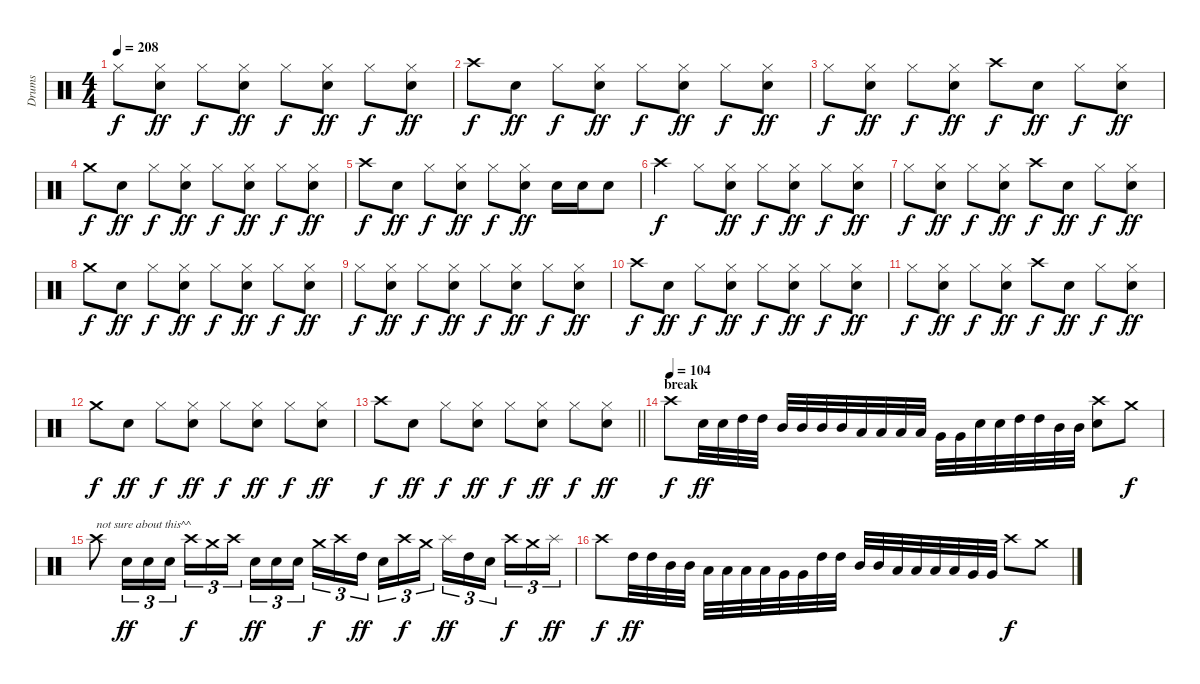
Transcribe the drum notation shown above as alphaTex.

\track ("Drums" "Drums") {instrument percussion}
\staff {score}
\articulation defaults
\ts (4 4)
\tempo 208
\clef neutral
\ks c "Hi-Hat (closed)".8{dy f}
("Hi-Hat (closed)" "Snare (hit) 2").8{dy ff} "Hi-Hat (closed)".8{dy f} ("Hi-Hat (closed)" "Snare (hit) 2").8{dy ff} "Hi-Hat (closed)".8{dy f} ("Hi-Hat (closed)" "Snare (hit) 2").8{dy ff} "Hi-Hat (closed)".8{dy f} ("Hi-Hat (closed)" "Snare (hit) 2").8{dy ff} |
"Crash high (hit)".8{dy f} "Snare (hit) 2".8{dy ff} "Hi-Hat (closed)".8{dy f} ("Hi-Hat (closed)" "Snare (hit) 2").8{dy ff} "Hi-Hat (closed)".8{dy f} ("Hi-Hat (closed)" "Snare (hit) 2").8{dy ff} "Hi-Hat (closed)".8{dy f} ("Hi-Hat (closed)" "Snare (hit) 2").8{dy ff} |
"Hi-Hat (closed)".8{dy f} ("Hi-Hat (closed)" "Snare (hit) 2").8{dy ff} "Hi-Hat (closed)".8{dy f} ("Hi-Hat (closed)" "Snare (hit) 2").8{dy ff} "Crash high (hit)".8{dy f} "Snare (hit) 2".8{dy ff} "Hi-Hat (closed)".8{dy f} ("Hi-Hat (closed)" "Snare (hit) 2").8{dy ff} |
"Crash medium (hit)".8{dy f} "Snare (hit) 2".8{dy ff} "Hi-Hat (closed)".8{dy f} ("Hi-Hat (closed)" "Snare (hit) 2").8{dy ff} "Hi-Hat (closed)".8{dy f} ("Hi-Hat (closed)" "Snare (hit) 2").8{dy ff} "Hi-Hat (closed)".8{dy f} ("Hi-Hat (closed)" "Snare (hit) 2").8{dy ff} |
"Crash high (hit)".8{dy f} "Snare (hit) 2".8{dy ff} "Hi-Hat (closed)".8{dy f} ("Hi-Hat (closed)" "Snare (hit) 2").8{dy ff} "Hi-Hat (closed)".8{dy f} ("Hi-Hat (closed)" "Snare (hit) 2").8{dy ff} "Snare (hit) 2".16 "Snare (hit) 2".16 "Snare (hit) 2".8 |
"Crash high (hit)".4{dy f} "Hi-Hat (closed)".8 ("Hi-Hat (closed)" "Snare (hit) 2").8{dy ff} "Hi-Hat (closed)".8{dy f} ("Hi-Hat (closed)" "Snare (hit) 2").8{dy ff} "Hi-Hat (closed)".8{dy f} ("Hi-Hat (closed)" "Snare (hit) 2").8{dy ff} |
"Hi-Hat (closed)".8{dy f} ("Hi-Hat (closed)" "Snare (hit) 2").8{dy ff} "Hi-Hat (closed)".8{dy f} ("Hi-Hat (closed)" "Snare (hit) 2").8{dy ff} "Crash high (hit)".8{dy f} "Snare (hit) 2".8{dy ff} "Hi-Hat (closed)".8{dy f} ("Hi-Hat (closed)" "Snare (hit) 2").8{dy ff} |
"Crash medium (hit)".8{dy f} "Snare (hit) 2".8{dy ff} "Hi-Hat (closed)".8{dy f} ("Hi-Hat (closed)" "Snare (hit) 2").8{dy ff} "Hi-Hat (closed)".8{dy f} ("Hi-Hat (closed)" "Snare (hit) 2").8{dy ff} "Hi-Hat (closed)".8{dy f} ("Hi-Hat (closed)" "Snare (hit) 2").8{dy ff} |
"Hi-Hat (closed)".8{dy f} ("Hi-Hat (closed)" "Snare (hit) 2").8{dy ff} "Hi-Hat (closed)".8{dy f} ("Hi-Hat (closed)" "Snare (hit) 2").8{dy ff} "Hi-Hat (closed)".8{dy f} ("Hi-Hat (closed)" "Snare (hit) 2").8{dy ff} "Hi-Hat (closed)".8{dy f} ("Hi-Hat (closed)" "Snare (hit) 2").8{dy ff} |
"Crash high (hit)".8{dy f} "Snare (hit) 2".8{dy ff} "Hi-Hat (closed)".8{dy f} ("Hi-Hat (closed)" "Snare (hit) 2").8{dy ff} "Hi-Hat (closed)".8{dy f} ("Hi-Hat (closed)" "Snare (hit) 2").8{dy ff} "Hi-Hat (closed)".8{dy f} ("Hi-Hat (closed)" "Snare (hit) 2").8{dy ff} |
"Hi-Hat (closed)".8{dy f} ("Hi-Hat (closed)" "Snare (hit) 2").8{dy ff} "Hi-Hat (closed)".8{dy f} ("Hi-Hat (closed)" "Snare (hit) 2").8{dy ff} "Crash high (hit)".8{dy f} "Snare (hit) 2".8{dy ff} "Hi-Hat (closed)".8{dy f} ("Hi-Hat (closed)" "Snare (hit) 2").8{dy ff} |
"Crash medium (hit)".8{dy f} "Snare (hit) 2".8{dy ff} "Hi-Hat (closed)".8{dy f} ("Hi-Hat (closed)" "Snare (hit) 2").8{dy ff} "Hi-Hat (closed)".8{dy f} ("Hi-Hat (closed)" "Snare (hit) 2").8{dy ff} "Hi-Hat (closed)".8{dy f} ("Hi-Hat (closed)" "Snare (hit) 2").8{dy ff} |
\barLineRight lightlight "Crash high (hit)".8{dy f} "Snare (hit) 2".8{dy ff} "Hi-Hat (closed)".8{dy f}
("Hi-Hat (closed)" "Snare (hit) 2").8{dy ff} "Hi-Hat (closed)".8{dy f} ("Hi-Hat (closed)" "Snare (hit) 2").8{dy ff} "Hi-Hat (closed)".8{dy f} ("Hi-Hat (closed)" "Snare (hit) 2").8{dy ff} |
\section ("" "break")
\tempo (104)
"Crash high (hit)".8{dy f} "Snare (hit) 2".32{dy ff} "Snare (hit) 2".32 "High Tom (hit)".32 "High Tom (hit)".32 "Mid Tom (hit)".32 "Mid Tom (hit)".32 "Mid Tom (hit)".32 "Mid Tom (hit)".32 "Low Tom (hit)".32 "Low Tom (hit)".32 "Low Tom (hit)".32 "Low Tom (hit)".32 "Very Low Tom (hit)".32 "Very Low Tom (hit)".32 "Snare (hit) 2".32 "Snare (hit) 2".32 "High Tom (hit)".32 "High Tom (hit)".32 "Mid Tom (hit)".32 "Mid Tom (hit)".32 ("Crash high (hit)" "Snare (hit) 2").8 "Crash medium (hit)".8{dy f} |
"Crash high (hit)".8{txt "not sure about this^^"} "Snare (hit) 2".16{tu (3 2) dy ff} "Snare (hit) 2".16{tu (3 2)} "Snare (hit) 2".16{tu (3 2)} "Crash high (hit)".16{tu (3 2) dy f} "Crash medium (hit)".16{tu (3 2)} "Crash high (hit)".16{tu (3 2) beam splitsecondary} "Snare (hit) 2".16{tu (3 2) dy ff} "Snare (hit) 2".16{tu (3 2)} "Snare (hit) 2".16{tu (3 2)} "Crash medium (hit)".16{tu (3 2) dy f} "Crash high (hit)".16{tu (3 2)} "High Tom (hit)".16{tu (3 2) dy ff beam splitsecondary} "Snare (hit) 2".16{tu (3 2)} "Crash high (hit)".16{tu (3 2) dy f} "Crash medium (hit)".16{tu (3 2)} "Splash (hit)".16{tu (3 2) dy ff} "High Tom (hit)".16{tu (3 2)} "Snare (hit) 2".16{tu (3 2) beam splitsecondary} "Crash high (hit)".16{tu (3 2) dy f} "Crash medium (hit)".16{tu (3 2)} "Splash (hit)".16{tu (3 2) dy ff} |
"Crash high (hit)".8{dy f} "High Tom (hit)".32{dy ff} "High Tom (hit)".32 "Mid Tom (hit)".32 "Mid Tom (hit)".32 "Low Tom (hit)".32 "Low Tom (hit)".32 "Low Tom (hit)".32 "Low Tom (hit)".32 "Very Low Tom (hit)".32 "Very Low Tom (hit)".32 "High Tom (hit)".32 "High Tom (hit)".32 "Mid Tom (hit)".32 "Mid Tom (hit)".32 "Low Tom (hit)".32 "Low Tom (hit)".32 "Low Tom (hit)".32 "Low Tom (hit)".32 "Very Low Tom (hit)".32 "Very Low Tom (hit)".32 "Crash high (hit)".8{dy f} "Crash medium (hit)".8
